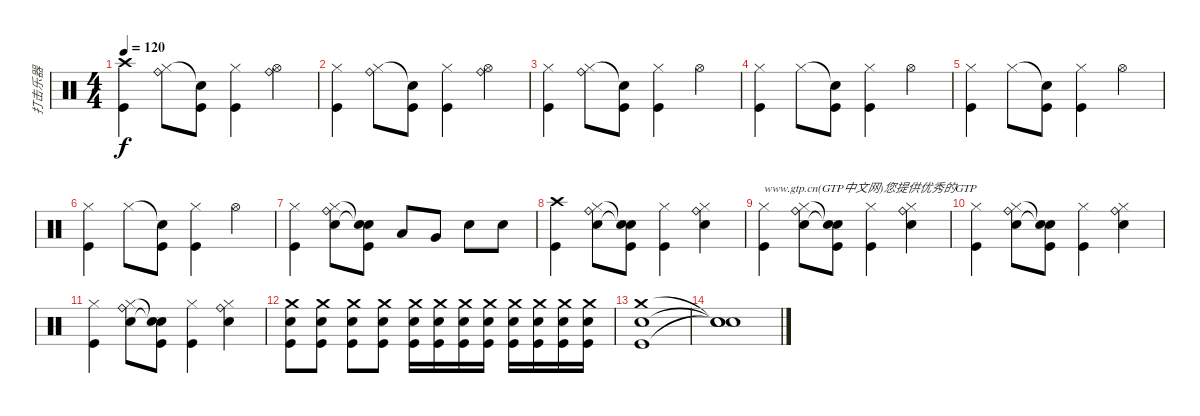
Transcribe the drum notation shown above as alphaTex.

\track ("打击乐器" "打击乐器") {instrument percussion}
\staff {score}
\articulation defaults
\ts (4 4)
\tempo 120
\clef neutral
\ks c
("Crash high (hit)" "Kick (hit)").4{dy f} ("Hi-Hat (closed)" "Ride (bell)").8 ("Snare (hit)"{t} "Kick (hit)").8 ("Hi-Hat (closed)" "Kick (hit)").4 ("Hi-Hat (open)" "Ride (bell)").4 |
("Hi-Hat (closed)" "Kick (hit)").4 ("Hi-Hat (closed)" "Ride (bell)").8 ("Snare (hit)"{t} "Kick (hit)").8 ("Hi-Hat (closed)" "Kick (hit)").4 ("Hi-Hat (open)" "Ride (bell)").4 |
("Hi-Hat (closed)" "Kick (hit)").4 ("Hi-Hat (closed)" "Ride (bell)").8 ("Snare (hit)"{t} "Kick (hit)").8 ("Hi-Hat (closed)" "Kick (hit)").4 "Hi-Hat (open)".4 |
("Hi-Hat (closed)" "Kick (hit)").4 "Hi-Hat (closed)".8 ("Snare (hit)"{t} "Kick (hit)").8 ("Hi-Hat (closed)" "Kick (hit)").4 "Hi-Hat (open)".4 |
("Hi-Hat (closed)" "Kick (hit)").4 "Hi-Hat (closed)".8 ("Snare (hit)"{t} "Kick (hit)").8 ("Hi-Hat (closed)" "Kick (hit)").4 "Hi-Hat (open)".4 |
("Hi-Hat (closed)" "Kick (hit)").4 "Hi-Hat (closed)".8 ("Snare (hit)"{t} "Kick (hit)").8 ("Hi-Hat (closed)" "Kick (hit)").4 "Hi-Hat (open)".4 |
("Hi-Hat (closed)" "Kick (hit)").4 ("Hi-Hat (closed)" "Snare (hit) 2" "Ride (bell)").8 ("Snare (hit)"{t} "Snare (hit)"{t} "Kick (hit)").8 "Low Tom (hit)".8 "Very Low Tom (hit)".8 "Snare (hit) 2".8 "Snare (hit) 2".8 |
("Crash high (hit)" "Kick (hit)").4 ("Hi-Hat (closed)" "Snare (hit) 2" "Ride (bell)").8 ("Snare (hit)"{t} "Snare (hit)"{t} "Kick (hit)").8 ("Hi-Hat (closed)" "Kick (hit)").4 ("Hi-Hat (closed)" "Snare (hit) 2" "Ride (bell)").4 |
("Hi-Hat (closed)" "Kick (hit)").4{txt "www.gtp.cn(GTP中文网)您提供优秀的GTP"} ("Hi-Hat (closed)" "Snare (hit) 2" "Ride (bell)").8 ("Snare (hit)"{t} "Snare (hit)"{t} "Kick (hit)").8 ("Hi-Hat (closed)" "Kick (hit)").4 ("Hi-Hat (closed)" "Snare (hit) 2" "Ride (bell)").4 |
("Hi-Hat (closed)" "Kick (hit)").4 ("Hi-Hat (closed)" "Snare (hit) 2" "Ride (bell)").8 ("Snare (hit)"{t} "Snare (hit)"{t} "Kick (hit)").8 ("Hi-Hat (closed)" "Kick (hit)").4 ("Hi-Hat (closed)" "Snare (hit) 2" "Ride (bell)").4 |
("Hi-Hat (closed)" "Kick (hit)").4 ("Hi-Hat (closed)" "Snare (hit) 2" "Ride (bell)").8 ("Snare (hit)"{t} "Snare (hit)"{t} "Kick (hit)").8 ("Hi-Hat (closed)" "Kick (hit)").4 ("Hi-Hat (closed)" "Snare (hit) 2" "Ride (bell)").4 |
("Crash medium (hit)" "Snare (hit) 2" "Kick (hit)").8{volume 11} ("Crash medium (hit)" "Snare (hit) 2" "Kick (hit)").8 ("Crash medium (hit)" "Snare (hit) 2" "Kick (hit)").8 ("Crash medium (hit)" "Snare (hit) 2" "Kick (hit)").8 ("Crash medium (hit)" "Snare (hit) 2" "Kick (hit)").16 ("Crash medium (hit)" "Snare (hit) 2" "Kick (hit)").16 ("Crash medium (hit)" "Snare (hit) 2" "Kick (hit)").16 ("Crash medium (hit)" "Snare (hit) 2" "Kick (hit)").16 ("Crash medium (hit)" "Snare (hit) 2" "Kick (hit)").16 ("Crash medium (hit)" "Snare (hit) 2" "Kick (hit)").16 ("Crash medium (hit)" "Snare (hit) 2" "Kick (hit)").16 ("Crash medium (hit)" "Snare (hit) 2" "Kick (hit)").16 |
("Crash medium (hit)" "Snare (hit) 2" "Kick (hit)").1 |
("Snare (hit)"{t} "Snare (hit)"{t} "Snare (hit)"{t}).1
